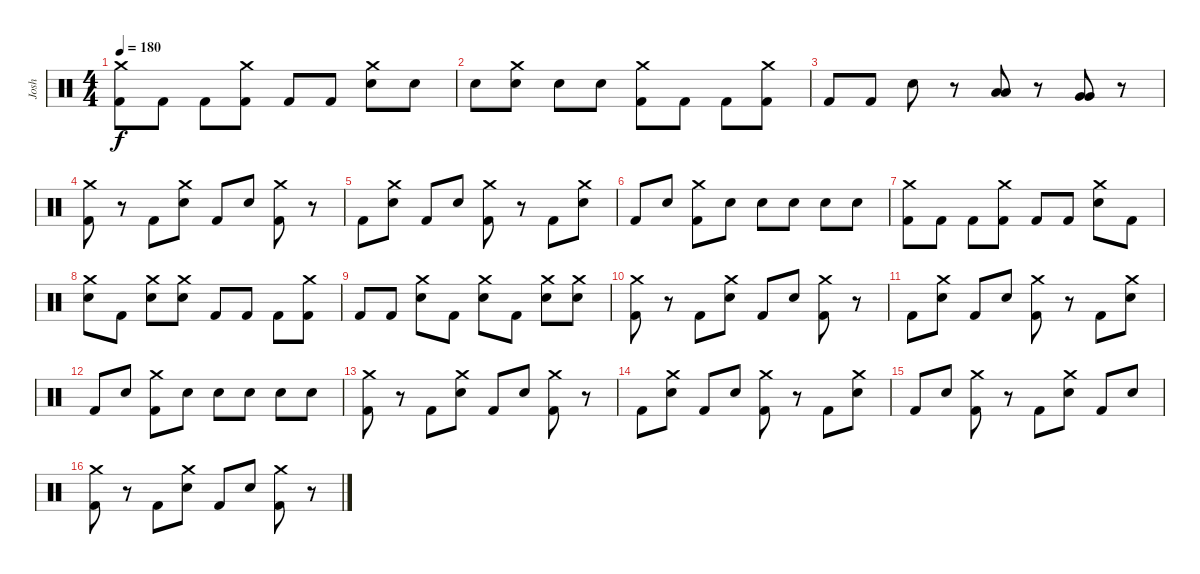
\track ("Josh" "Josh") {instrument percussion}
\staff {score}
\articulation defaults
\ts (4 4)
\tempo 180
\clef neutral
\ks c
("Crash medium (hit)" "Kick (hit) 2").8{dy f} "Kick (hit) 2".8 "Kick (hit) 2".8 ("Crash medium (hit)" "Kick (hit) 2").8 "Kick (hit) 2".8 "Kick (hit) 2".8 ("Crash medium (hit)" "Electric Snare (hit)").8 "Electric Snare (hit)".8 |
"Electric Snare (hit)".8 ("Crash medium (hit)" "Electric Snare (hit)").8 "Electric Snare (hit)".8 "Electric Snare (hit)".8 ("Crash medium (hit)" "Kick (hit) 2").8 "Kick (hit) 2".8 "Kick (hit) 2".8 ("Crash medium (hit)" "Kick (hit) 2").8 |
"Kick (hit) 2".8 "Kick (hit) 2".8 "Electric Snare (hit)".8 r.8 ("Low Tom (hit)" "Low Tom (hit)").8 r.8 ("Very Low Tom (hit)" "Very Low Tom (hit)").8 r.8 |
("Crash medium (hit)" "Kick (hit) 2").8 r.8 "Kick (hit) 2".8 ("Crash medium (hit)" "Electric Snare (hit)").8 "Kick (hit) 2".8 "Electric Snare (hit)".8 ("Crash medium (hit)" "Kick (hit) 2").8 r.8 |
"Kick (hit) 2".8 ("Crash medium (hit)" "Electric Snare (hit)").8 "Kick (hit) 2".8 "Electric Snare (hit)".8 ("Crash medium (hit)" "Kick (hit) 2").8 r.8 "Kick (hit) 2".8 ("Crash medium (hit)" "Electric Snare (hit)").8 |
"Kick (hit) 2".8 "Electric Snare (hit)".8 ("Crash medium (hit)" "Kick (hit) 2").8 "Electric Snare (hit)".8 "Electric Snare (hit)".8 "Electric Snare (hit)".8 "Electric Snare (hit)".8 "Electric Snare (hit)".8 |
("Crash medium (hit)" "Kick (hit) 2").8 "Kick (hit) 2".8 "Kick (hit) 2".8 ("Crash medium (hit)" "Kick (hit) 2").8 "Kick (hit) 2".8 "Kick (hit) 2".8 ("Crash medium (hit)" "Electric Snare (hit)").8 "Kick (hit) 2".8 |
("Crash medium (hit)" "Electric Snare (hit)").8 "Kick (hit) 2".8 ("Crash medium (hit)" "Electric Snare (hit)").8 ("Crash medium (hit)" "Electric Snare (hit)").8 "Kick (hit) 2".8 "Kick (hit) 2".8 "Kick (hit) 2".8 ("Crash medium (hit)" "Kick (hit) 2").8 |
"Kick (hit) 2".8 "Kick (hit) 2".8 ("Crash medium (hit)" "Electric Snare (hit)").8 "Kick (hit) 2".8 ("Crash medium (hit)" "Electric Snare (hit)").8 "Kick (hit) 2".8 ("Crash medium (hit)" "Electric Snare (hit)").8 ("Crash medium (hit)" "Electric Snare (hit)").8 |
("Crash medium (hit)" "Kick (hit) 2").8 r.8 "Kick (hit) 2".8 ("Crash medium (hit)" "Electric Snare (hit)").8 "Kick (hit) 2".8 "Electric Snare (hit)".8 ("Crash medium (hit)" "Kick (hit) 2").8 r.8 |
"Kick (hit) 2".8 ("Crash medium (hit)" "Electric Snare (hit)").8 "Kick (hit) 2".8 "Electric Snare (hit)".8 ("Crash medium (hit)" "Kick (hit) 2").8 r.8 "Kick (hit) 2".8 ("Crash medium (hit)" "Electric Snare (hit)").8 |
"Kick (hit) 2".8 "Electric Snare (hit)".8 ("Crash medium (hit)" "Kick (hit) 2").8 "Electric Snare (hit)".8 "Electric Snare (hit)".8 "Electric Snare (hit)".8 "Electric Snare (hit)".8 "Electric Snare (hit)".8 |
("Crash medium (hit)" "Kick (hit) 2").8 r.8 "Kick (hit) 2".8 ("Crash medium (hit)" "Electric Snare (hit)").8 "Kick (hit) 2".8 "Electric Snare (hit)".8 ("Crash medium (hit)" "Kick (hit) 2").8 r.8 |
"Kick (hit) 2".8 ("Crash medium (hit)" "Electric Snare (hit)").8 "Kick (hit) 2".8 "Electric Snare (hit)".8 ("Crash medium (hit)" "Kick (hit) 2").8 r.8 "Kick (hit) 2".8 ("Crash medium (hit)" "Electric Snare (hit)").8 |
"Kick (hit) 2".8 "Electric Snare (hit)".8 ("Crash medium (hit)" "Kick (hit) 2").8 r.8 "Kick (hit) 2".8 ("Crash medium (hit)" "Electric Snare (hit)").8 "Kick (hit) 2".8 "Electric Snare (hit)".8 |
("Crash medium (hit)" "Kick (hit) 2").8 r.8 "Kick (hit) 2".8 ("Crash medium (hit)" "Electric Snare (hit)").8 "Kick (hit) 2".8 "Electric Snare (hit)".8 ("Crash medium (hit)" "Kick (hit) 2").8 r.8
